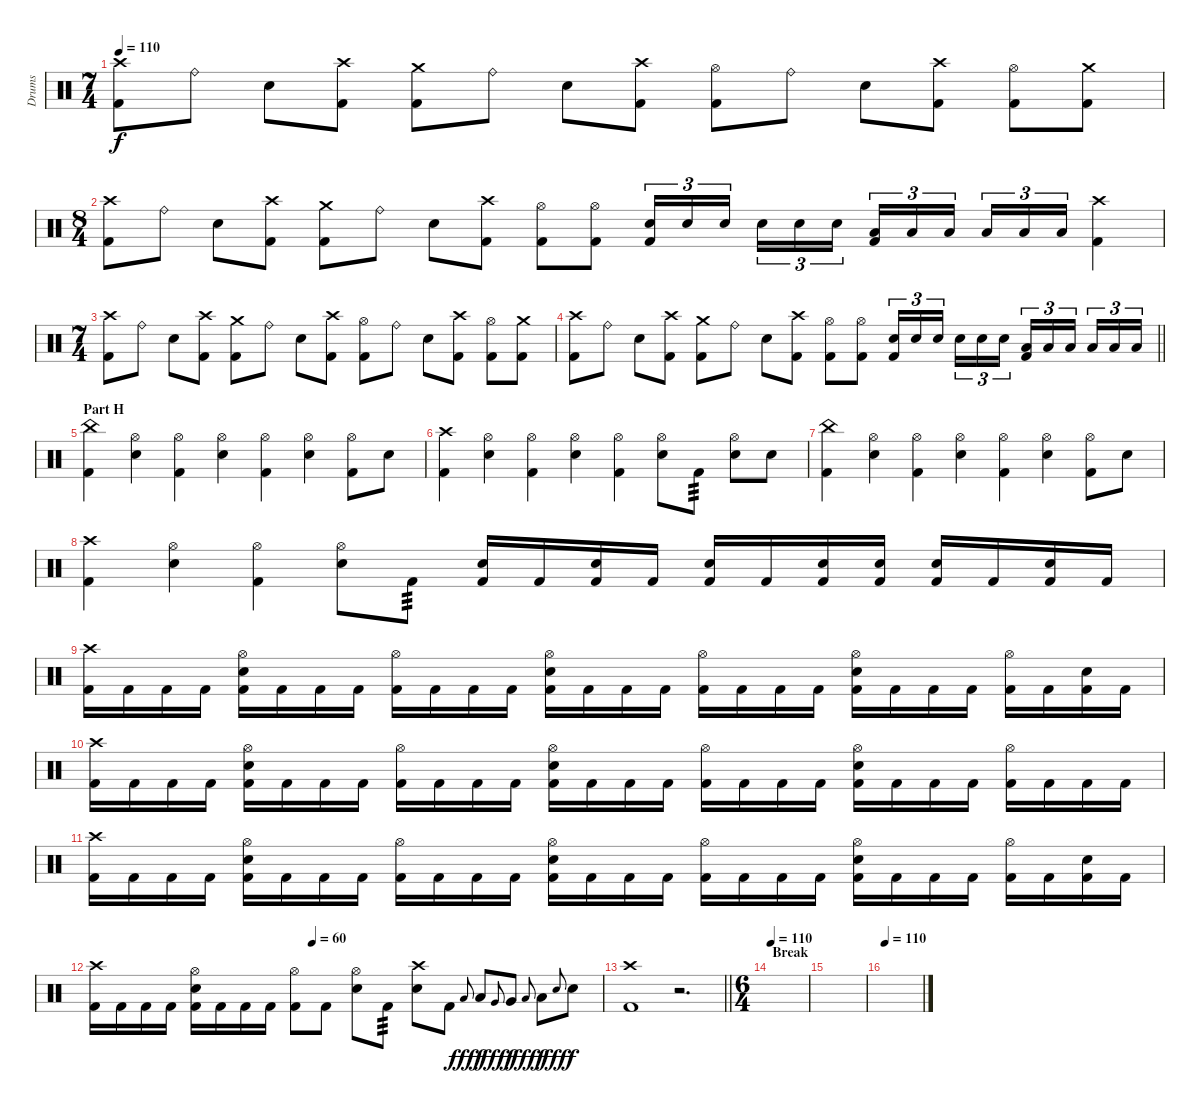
\track ("Drums" "Drums") {instrument percussion}
\staff {score}
\articulation defaults
\ts (7 4)
\tempo 110
\clef neutral
\ks c
("Crash high (hit)" "Kick (hit) 2").8{dy f} "Ride (bell)".8 "Snare (hit) 2".8 ("Kick (hit) 2" "Crash high (hit)").8 ("Crash medium (hit)" "Kick (hit) 2").8 "Ride (bell)".8 "Snare (hit) 2".8 ("Kick (hit) 2" "Crash high (hit)").8 ("Hi-Hat (open)" "Kick (hit) 2").8 "Ride (bell)".8 "Snare (hit) 2".8 ("Kick (hit) 2" "Crash high (hit)").8 ("Kick (hit) 2" "Hi-Hat (open)").8 ("Kick (hit) 2" "Crash medium (hit)").8 |
\ts (8 4)
("Crash high (hit)" "Kick (hit) 2").8 "Ride (bell)".8 "Snare (hit) 2".8 ("Kick (hit) 2" "Crash high (hit)").8 ("Crash medium (hit)" "Kick (hit) 2").8 "Ride (bell)".8 "Snare (hit) 2".8 ("Kick (hit) 2" "Crash high (hit)").8 ("Hi-Hat (open)" "Kick (hit) 2").8 ("Hi-Hat (open)" "Kick (hit) 2").8 ("Snare (hit) 2" "Kick (hit) 2").16{tu (3 2)} "Snare (hit) 2".16{tu (3 2)} "Snare (hit) 2".16{tu (3 2) beam splitsecondary} "Snare (hit) 2".16{tu (3 2)} "Snare (hit) 2".16{tu (3 2)} "Snare (hit) 2".16{tu (3 2)} ("Low Tom (hit)" "Kick (hit) 2").16{tu (3 2)} "Low Tom (hit)".16{tu (3 2)} "Low Tom (hit)".16{tu (3 2) beam splitsecondary} "Low Tom (hit)".16{tu (3 2)} "Low Tom (hit)".16{tu (3 2)} "Low Tom (hit)".16{tu (3 2)} ("Kick (hit) 2" "Crash high (hit)").4 |
\ts (7 4)
("Crash high (hit)" "Kick (hit) 2").8 "Ride (bell)".8 "Snare (hit) 2".8 ("Kick (hit) 2" "Crash high (hit)").8 ("Crash medium (hit)" "Kick (hit) 2").8 "Ride (bell)".8 "Snare (hit) 2".8 ("Kick (hit) 2" "Crash high (hit)").8 ("Hi-Hat (open)" "Kick (hit) 2").8 "Ride (bell)".8 "Snare (hit) 2".8 ("Kick (hit) 2" "Crash high (hit)").8 ("Kick (hit) 2" "Hi-Hat (open)").8 ("Kick (hit) 2" "Crash medium (hit)").8 |
\barLineRight lightlight
("Crash high (hit)" "Kick (hit) 2").8 "Ride (bell)".8 "Snare (hit) 2".8 ("Kick (hit) 2" "Crash high (hit)").8 ("Crash medium (hit)" "Kick (hit) 2").8 "Ride (bell)".8 "Snare (hit) 2".8 ("Kick (hit) 2" "Crash high (hit)").8 ("Hi-Hat (open)" "Kick (hit) 2").8 ("Hi-Hat (open)" "Kick (hit) 2").8 ("Snare (hit) 2" "Kick (hit) 2").16{tu (3 2)} "Snare (hit) 2".16{tu (3 2)} "Snare (hit) 2".16{tu (3 2) beam splitsecondary} "Snare (hit) 2".16{tu (3 2)} "Snare (hit) 2".16{tu (3 2)} "Snare (hit) 2".16{tu (3 2)} ("Low Tom (hit)" "Kick (hit) 2").16{tu (3 2)} "Low Tom (hit)".16{tu (3 2)} "Low Tom (hit)".16{tu (3 2) beam splitsecondary} "Low Tom (hit)".16{tu (3 2)} "Low Tom (hit)".16{tu (3 2)} "Low Tom (hit)".16{tu (3 2)} |
\section ("" "Part H")
("China (hit)" "Kick (hit) 2").4 ("Hi-Hat (open)" "Snare (hit) 2").4 ("Kick (hit) 2" "Hi-Hat (open)").4 ("Hi-Hat (open)" "Snare (hit) 2").4 ("Kick (hit) 2" "Hi-Hat (open)").4 ("Hi-Hat (open)" "Snare (hit) 2").4 ("Kick (hit) 2" "Hi-Hat (open)").8 "Snare (hit) 2".8 |
("Crash high (hit)" "Kick (hit) 2").4 ("Hi-Hat (open)" "Snare (hit) 2").4 ("Kick (hit) 2" "Hi-Hat (open)").4 ("Hi-Hat (open)" "Snare (hit) 2").4 ("Kick (hit) 2" "Hi-Hat (open)").4 ("Hi-Hat (open)" "Snare (hit) 2").8 "Kick (hit) 2".8{tp 3} ("Snare (hit) 2" "Hi-Hat (open)").8 "Snare (hit) 2".8 |
("China (hit)" "Kick (hit) 2").4 ("Hi-Hat (open)" "Snare (hit) 2").4 ("Kick (hit) 2" "Hi-Hat (open)").4 ("Hi-Hat (open)" "Snare (hit) 2").4 ("Kick (hit) 2" "Hi-Hat (open)").4 ("Hi-Hat (open)" "Snare (hit) 2").4 ("Kick (hit) 2" "Hi-Hat (open)").8 "Snare (hit) 2".8 |
("Crash high (hit)" "Kick (hit) 2").4 ("Hi-Hat (open)" "Snare (hit) 2").4 ("Kick (hit) 2" "Hi-Hat (open)").4 ("Hi-Hat (open)" "Snare (hit) 2").8 "Kick (hit) 2".8{tp 3} ("Kick (hit) 2" "Snare (hit) 2").16 "Kick (hit) 2".16 ("Snare (hit) 2" "Kick (hit) 2").16 "Kick (hit) 2".16 ("Kick (hit) 2" "Snare (hit) 2").16 "Kick (hit) 2".16 ("Kick (hit) 2" "Snare (hit) 2").16 ("Kick (hit) 2" "Snare (hit) 2").16 ("Kick (hit) 2" "Snare (hit) 2").16 "Kick (hit) 2".16 ("Kick (hit) 2" "Snare (hit) 2").16 "Kick (hit) 2".16 |
("Kick (hit) 2" "Crash high (hit)").16 "Kick (hit) 2".16 "Kick (hit) 2".16 "Kick (hit) 2".16 ("Kick (hit) 2" "Hi-Hat (open)" "Snare (hit) 2").16 "Kick (hit) 2".16 "Kick (hit) 2".16 "Kick (hit) 2".16 ("Kick (hit) 2" "Hi-Hat (open)").16 "Kick (hit) 2".16 "Kick (hit) 2".16 "Kick (hit) 2".16 ("Kick (hit) 2" "Hi-Hat (open)" "Snare (hit) 2").16 "Kick (hit) 2".16 "Kick (hit) 2".16 "Kick (hit) 2".16 ("Kick (hit) 2" "Hi-Hat (open)").16 "Kick (hit) 2".16 "Kick (hit) 2".16 "Kick (hit) 2".16 ("Kick (hit) 2" "Hi-Hat (open)" "Snare (hit) 2").16 "Kick (hit) 2".16 "Kick (hit) 2".16 "Kick (hit) 2".16 ("Kick (hit) 2" "Hi-Hat (open)").16 "Kick (hit) 2".16 ("Kick (hit) 2" "Snare (hit) 2").16 "Kick (hit) 2".16 |
("Kick (hit) 2" "Crash high (hit)").16 "Kick (hit) 2".16 "Kick (hit) 2".16 "Kick (hit) 2".16 ("Kick (hit) 2" "Hi-Hat (open)" "Snare (hit) 2").16 "Kick (hit) 2".16 "Kick (hit) 2".16 "Kick (hit) 2".16 ("Kick (hit) 2" "Hi-Hat (open)").16 "Kick (hit) 2".16 "Kick (hit) 2".16 "Kick (hit) 2".16 ("Kick (hit) 2" "Hi-Hat (open)" "Snare (hit) 2").16 "Kick (hit) 2".16 "Kick (hit) 2".16 "Kick (hit) 2".16 ("Kick (hit) 2" "Hi-Hat (open)").16 "Kick (hit) 2".16 "Kick (hit) 2".16 "Kick (hit) 2".16 ("Kick (hit) 2" "Hi-Hat (open)" "Snare (hit) 2").16 "Kick (hit) 2".16 "Kick (hit) 2".16 "Kick (hit) 2".16 ("Kick (hit) 2" "Hi-Hat (open)").16 "Kick (hit) 2".16 "Kick (hit) 2".16 "Kick (hit) 2".16 |
("Kick (hit) 2" "Crash high (hit)").16 "Kick (hit) 2".16 "Kick (hit) 2".16 "Kick (hit) 2".16 ("Kick (hit) 2" "Hi-Hat (open)" "Snare (hit) 2").16 "Kick (hit) 2".16 "Kick (hit) 2".16 "Kick (hit) 2".16 ("Kick (hit) 2" "Hi-Hat (open)").16 "Kick (hit) 2".16 "Kick (hit) 2".16 "Kick (hit) 2".16 ("Kick (hit) 2" "Hi-Hat (open)" "Snare (hit) 2").16 "Kick (hit) 2".16 "Kick (hit) 2".16 "Kick (hit) 2".16 ("Kick (hit) 2" "Hi-Hat (open)").16 "Kick (hit) 2".16 "Kick (hit) 2".16 "Kick (hit) 2".16 ("Kick (hit) 2" "Hi-Hat (open)" "Snare (hit) 2").16 "Kick (hit) 2".16 "Kick (hit) 2".16 "Kick (hit) 2".16 ("Kick (hit) 2" "Hi-Hat (open)").16 "Kick (hit) 2".16 ("Kick (hit) 2" "Snare (hit) 2").16 "Kick (hit) 2".16 |
\tempo (60 0.42857142857142855)
("Kick (hit) 2" "Crash high (hit)").16 "Kick (hit) 2".16 "Kick (hit) 2".16 "Kick (hit) 2".16 ("Kick (hit) 2" "Hi-Hat (open)" "Snare (hit) 2").16 "Kick (hit) 2".16 "Kick (hit) 2".16 "Kick (hit) 2".16 ("Kick (hit) 2" "Hi-Hat (open)").8 "Kick (hit) 2".8 ("Hi-Hat (open)" "Snare (hit) 2").8 "Kick (hit) 2".8{tp 3} ("Snare (hit) 2" "Crash high (hit)").8 "Kick (hit) 2".8 "Low Tom (hit)".8{gr onbeat dy fff} "Low Tom (hit)".8{dy f} "Very Low Tom (hit)".8{gr onbeat dy fff} "Very Low Tom (hit)".8{dy f} "Low Floor Tom (hit)".8{gr onbeat dy fff} "Low Floor Tom (hit)".8{dy f} "Snare (hit) 2".8{gr onbeat dy fff} "Snare (hit) 2".8{dy f} |
\barLineRight lightlight
("Kick (hit) 2" "Crash high (hit)").1 r.2{d} |
\ts (6 4)
\section ("" "Break")
\tempo 110
|
|
\tempo 110
